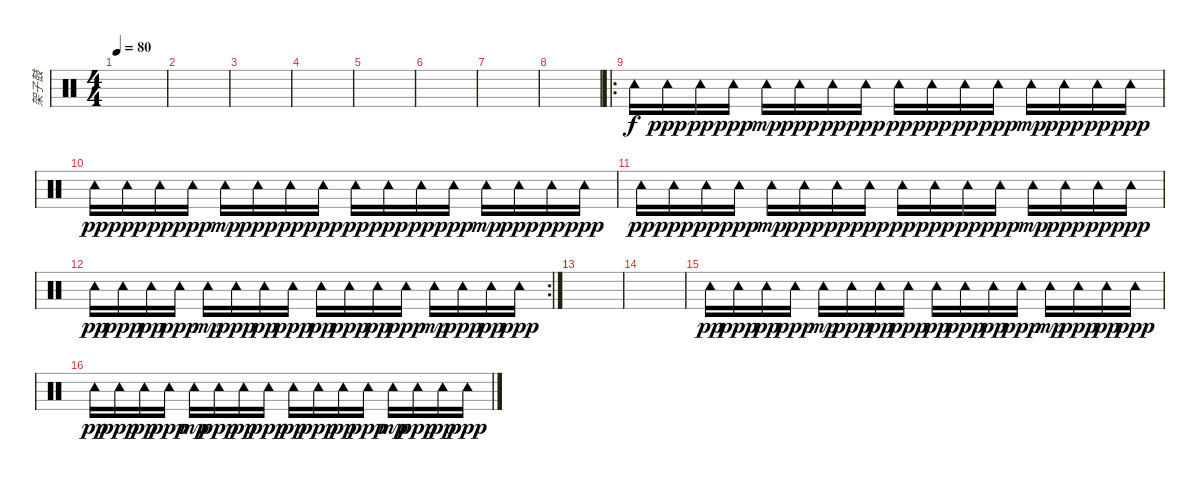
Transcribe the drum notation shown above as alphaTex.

\track ("架子鼓" "架子鼓") {instrument percussion}
\staff {score}
\articulation defaults
\ts (4 4)
\tempo 80
\clef neutral
\ks c
|
|
|
|
|
|
|
|
\ro "Tambourine (hit)".16 "Tambourine (hit)".16{dy ppp} "Tambourine (hit)".16{dy pp} "Tambourine (hit)".16{dy ppp} "Tambourine (hit)".16{dy mp} "Tambourine (hit)".16{dy ppp} "Tambourine (hit)".16{dy pp} "Tambourine (hit)".16{dy ppp} "Tambourine (hit)".16{dy pp} "Tambourine (hit)".16{dy ppp} "Tambourine (hit)".16{dy pp} "Tambourine (hit)".16{dy ppp} "Tambourine (hit)".16{dy mp} "Tambourine (hit)".16{dy ppp} "Tambourine (hit)".16{dy pp} "Tambourine (hit)".16{dy ppp}
|
"Tambourine (hit)".16{dy pp} "Tambourine (hit)".16{dy ppp} "Tambourine (hit)".16{dy pp} "Tambourine (hit)".16{dy ppp} "Tambourine (hit)".16{dy mp} "Tambourine (hit)".16{dy ppp} "Tambourine (hit)".16{dy pp} "Tambourine (hit)".16{dy ppp} "Tambourine (hit)".16{dy pp} "Tambourine (hit)".16{dy ppp} "Tambourine (hit)".16{dy pp} "Tambourine (hit)".16{dy ppp} "Tambourine (hit)".16{dy mp} "Tambourine (hit)".16{dy ppp} "Tambourine (hit)".16{dy pp} "Tambourine (hit)".16{dy ppp} |
"Tambourine (hit)".16{dy pp} "Tambourine (hit)".16{dy ppp} "Tambourine (hit)".16{dy pp} "Tambourine (hit)".16{dy ppp} "Tambourine (hit)".16{dy mp} "Tambourine (hit)".16{dy ppp} "Tambourine (hit)".16{dy pp} "Tambourine (hit)".16{dy ppp} "Tambourine (hit)".16{dy pp} "Tambourine (hit)".16{dy ppp} "Tambourine (hit)".16{dy pp} "Tambourine (hit)".16{dy ppp} "Tambourine (hit)".16{dy mp} "Tambourine (hit)".16{dy ppp} "Tambourine (hit)".16{dy pp} "Tambourine (hit)".16{dy ppp} |
\rc 2 "Tambourine (hit)".16{dy pp} "Tambourine (hit)".16{dy ppp} "Tambourine (hit)".16{dy pp} "Tambourine (hit)".16{dy ppp} "Tambourine (hit)".16{dy mp} "Tambourine (hit)".16{dy ppp} "Tambourine (hit)".16{dy pp} "Tambourine (hit)".16{dy ppp} "Tambourine (hit)".16{dy pp} "Tambourine (hit)".16{dy ppp} "Tambourine (hit)".16{dy pp} "Tambourine (hit)".16{dy ppp} "Tambourine (hit)".16{dy mp} "Tambourine (hit)".16{dy ppp} "Tambourine (hit)".16{dy pp} "Tambourine (hit)".16{dy ppp}
|
|
|
"Tambourine (hit)".16{dy pp} "Tambourine (hit)".16{dy ppp} "Tambourine (hit)".16{dy pp} "Tambourine (hit)".16{dy ppp} "Tambourine (hit)".16{dy mp} "Tambourine (hit)".16{dy ppp} "Tambourine (hit)".16{dy pp} "Tambourine (hit)".16{dy ppp} "Tambourine (hit)".16{dy pp} "Tambourine (hit)".16{dy ppp} "Tambourine (hit)".16{dy pp} "Tambourine (hit)".16{dy ppp} "Tambourine (hit)".16{dy mp} "Tambourine (hit)".16{dy ppp} "Tambourine (hit)".16{dy pp} "Tambourine (hit)".16{dy ppp} |
"Tambourine (hit)".16{dy pp} "Tambourine (hit)".16{dy ppp} "Tambourine (hit)".16{dy pp} "Tambourine (hit)".16{dy ppp} "Tambourine (hit)".16{dy mp} "Tambourine (hit)".16{dy ppp} "Tambourine (hit)".16{dy pp} "Tambourine (hit)".16{dy ppp} "Tambourine (hit)".16{dy pp} "Tambourine (hit)".16{dy ppp} "Tambourine (hit)".16{dy pp} "Tambourine (hit)".16{dy ppp} "Tambourine (hit)".16{dy mp} "Tambourine (hit)".16{dy ppp} "Tambourine (hit)".16{dy pp} "Tambourine (hit)".16{dy ppp}
